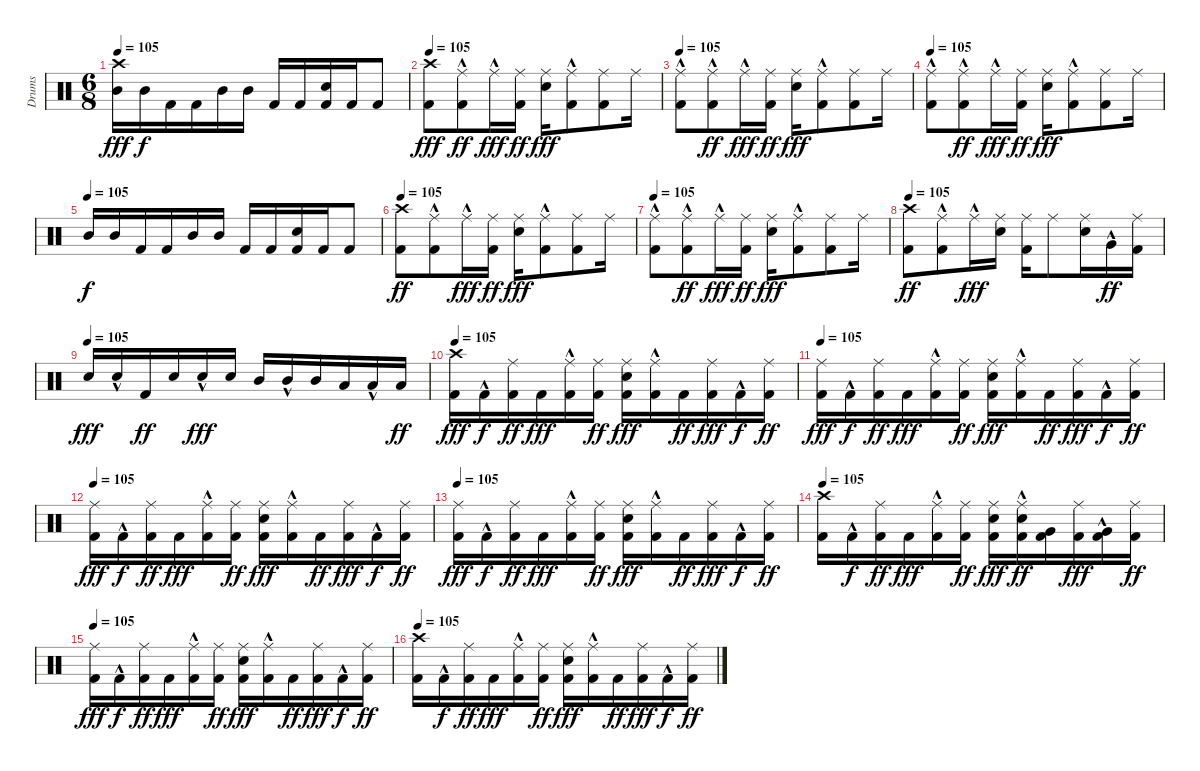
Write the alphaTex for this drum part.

\track ("Drums" "Drums") {instrument percussion}
\staff {score}
\articulation defaults
\ts (6 8)
\tempo 105
\clef neutral
\ks c
("Mid Tom (hit)" "Crash high (hit)").16{dy fff} "Mid Tom (hit)".16{dy f} "Kick (hit) 2".16 "Kick (hit) 2".16 "Mid Tom (hit)".16 "Mid Tom (hit)".16 "Kick (hit) 2".16 "Kick (hit) 2".16 ("Electric Snare (hit)" "Kick (hit) 2").16 "Kick (hit) 2".16 "Kick (hit) 2".8 |
\tempo 105
("Kick (hit) 2" "Crash high (hit)").8{dy fff} ("Ride (middle)" "Kick (hit) 2"{hac}).8{dy ff} "Ride (middle)"{hac}.16{dy fff} ("Ride (middle)" "Kick (hit) 2").16{dy ff} ("Ride (middle)" "Electric Snare (hit)").16{dy fff} ("Ride (middle)" "Kick (hit) 2"{hac}).8 ("Ride (middle)" "Kick (hit) 2").8 "Ride (middle)".16 |
\tempo 105
("Ride (middle)" "Kick (hit) 2"{hac}).8 ("Ride (middle)" "Kick (hit) 2"{hac}).8{dy ff} "Ride (middle)"{hac}.16{dy fff} ("Ride (middle)" "Kick (hit) 2").16{dy ff} ("Ride (middle)" "Electric Snare (hit)").16{dy fff} ("Ride (middle)" "Kick (hit) 2"{hac}).8 ("Ride (middle)" "Kick (hit) 2").8 "Ride (middle)".16 |
\tempo 105
("Ride (middle)" "Kick (hit) 2"{hac}).8 ("Ride (middle)" "Kick (hit) 2"{hac}).8{dy ff} "Ride (middle)"{hac}.16{dy fff} ("Ride (middle)" "Kick (hit) 2").16{dy ff} ("Ride (middle)" "Electric Snare (hit)").16{dy fff} ("Ride (middle)" "Kick (hit) 2"{hac}).8 ("Ride (middle)" "Kick (hit) 2").8 "Ride (middle)".16 |
\tempo (105)
"Mid Tom (hit)".16{dy f} "Mid Tom (hit)".16 "Kick (hit) 2".16 "Kick (hit) 2".16 "Mid Tom (hit)".16 "Mid Tom (hit)".16 "Kick (hit) 2".16 "Kick (hit) 2".16 ("Electric Snare (hit)" "Kick (hit) 2").16 "Kick (hit) 2".16 "Kick (hit) 2".8 |
\tempo 105
("Kick (hit) 2" "Crash high (hit)").8{dy ff} ("Ride (middle)" "Kick (hit) 2"{hac}).8 "Ride (middle)"{hac}.16{dy fff} ("Ride (middle)" "Kick (hit) 2").16{dy ff} ("Ride (middle)" "Electric Snare (hit)").16{dy fff} ("Ride (middle)" "Kick (hit) 2"{hac}).8 ("Ride (middle)" "Kick (hit) 2").8 "Ride (middle)".16 |
\tempo 105
("Ride (middle)" "Kick (hit) 2"{hac}).8 ("Ride (middle)" "Kick (hit) 2"{hac}).8{dy ff} "Ride (middle)"{hac}.16{dy fff} ("Ride (middle)" "Kick (hit) 2").16{dy ff} ("Ride (middle)" "Electric Snare (hit)").16{dy fff} ("Ride (middle)" "Kick (hit) 2"{hac}).8 ("Ride (middle)" "Kick (hit) 2").8 "Ride (middle)".16 |
\tempo 105
("Kick (hit) 2" "Crash high (hit)").8{dy ff} ("Ride (middle)" "Kick (hit) 2"{hac}).8 "Ride (middle)"{hac}.16{dy fff} ("Ride (middle)" "Electric Snare (hit)").16 ("Ride (middle)" "Kick (hit) 2").16 "Ride (middle)".8 ("Ride (middle)" "Electric Snare (hit)").16 "Very Low Tom (hit)"{hac}.16{dy ff} ("Ride (middle)" "Kick (hit) 2").16 |
\tempo (105)
"Electric Snare (hit)".16{dy fff} "Electric Snare (hit)"{hac}.16 "Kick (hit) 2".16{dy ff} "Snare (hit) 2".16 "Snare (hit) 2"{hac}.16{dy fff} "Snare (hit) 2".16 "Mid Tom (hit)".16 "Mid Tom (hit)"{hac}.16 "Mid Tom (hit)".16 "Low Tom (hit)".16 "Low Tom (hit)"{hac}.16 "Low Tom (hit)".16{dy ff} |
\tempo 105
("Kick (hit) 2" "Crash high (hit)").16{dy fff} "Kick (hit) 2"{hac}.16{dy f} ("Ride (middle)" "Kick (hit) 2").16{dy ff} "Kick (hit) 2".16{dy fff} ("Ride (middle)"{hac} "Kick (hit) 2"{hac}).16 ("Ride (middle)" "Kick (hit) 2").16{dy ff} ("Ride (middle)" "Electric Snare (hit)" "Kick (hit) 2").16{dy fff} ("Ride (middle)" "Kick (hit) 2"{hac}).16 "Kick (hit) 2".16{dy ff} ("Ride (middle)" "Kick (hit) 2").16{dy fff} "Kick (hit) 2"{hac}.16{dy f} ("Ride (middle)" "Kick (hit) 2").16{dy ff} |
\tempo 105
("Ride (middle)" "Kick (hit) 2").16{dy fff} "Kick (hit) 2"{hac}.16{dy f} ("Ride (middle)" "Kick (hit) 2").16{dy ff} "Kick (hit) 2".16{dy fff} ("Ride (middle)"{hac} "Kick (hit) 2"{hac}).16 ("Ride (middle)" "Kick (hit) 2").16{dy ff} ("Ride (middle)" "Electric Snare (hit)" "Kick (hit) 2").16{dy fff} ("Ride (middle)" "Kick (hit) 2"{hac}).16 "Kick (hit) 2".16{dy ff} ("Ride (middle)" "Kick (hit) 2").16{dy fff} "Kick (hit) 2"{hac}.16{dy f} ("Ride (middle)" "Kick (hit) 2").16{dy ff} |
\tempo 105
("Ride (middle)" "Kick (hit) 2").16{dy fff} "Kick (hit) 2"{hac}.16{dy f} ("Ride (middle)" "Kick (hit) 2").16{dy ff} "Kick (hit) 2".16{dy fff} ("Ride (middle)"{hac} "Kick (hit) 2"{hac}).16 ("Ride (middle)" "Kick (hit) 2").16{dy ff} ("Ride (middle)" "Kick (hit) 2" "Electric Snare (hit)").16{dy fff} ("Ride (middle)" "Kick (hit) 2"{hac}).16 "Kick (hit) 2".16{dy ff} ("Ride (middle)" "Kick (hit) 2").16{dy fff} "Kick (hit) 2"{hac}.16{dy f} ("Ride (middle)" "Kick (hit) 2").16{dy ff} |
\tempo 105
("Ride (middle)" "Kick (hit) 2").16{dy fff} "Kick (hit) 2"{hac}.16{dy f} ("Ride (middle)" "Kick (hit) 2").16{dy ff} "Kick (hit) 2".16{dy fff} ("Ride (middle)"{hac} "Kick (hit) 2"{hac}).16 ("Ride (middle)" "Kick (hit) 2").16{dy ff} ("Ride (middle)" "Electric Snare (hit)" "Kick (hit) 2").16{dy fff} ("Ride (middle)" "Kick (hit) 2"{hac}).16 "Kick (hit) 2".16{dy ff} ("Ride (middle)" "Kick (hit) 2").16{dy fff} "Kick (hit) 2"{hac}.16{dy f} ("Ride (middle)" "Kick (hit) 2").16{dy ff} |
\tempo 105
("Kick (hit) 2" "Crash high (hit)").16 "Kick (hit) 2"{hac}.16{dy f} ("Ride (middle)" "Kick (hit) 2").16{dy ff} "Kick (hit) 2".16{dy fff} ("Ride (middle)"{hac} "Kick (hit) 2"{hac}).16 ("Ride (middle)" "Kick (hit) 2").16{dy ff} ("Ride (middle)" "Electric Snare (hit)" "Kick (hit) 2").16{dy fff} ("Ride (middle)" "Electric Snare (hit)"{hac} "Kick (hit) 2"{hac}).16{dy ff} ("Very Low Tom (hit)" "Kick (hit) 2").16 ("Ride (middle)" "Kick (hit) 2").16{dy fff} ("Very Low Tom (hit)"{hac} "Kick (hit) 2"{hac}).16 ("Ride (middle)" "Kick (hit) 2").16{dy ff} |
\tempo 105
("Ride (middle)" "Kick (hit) 2").16{dy fff} "Kick (hit) 2"{hac}.16{dy f} ("Ride (middle)" "Kick (hit) 2").16{dy ff} "Kick (hit) 2".16{dy fff} ("Ride (middle)"{hac} "Kick (hit) 2"{hac}).16 ("Ride (middle)" "Kick (hit) 2").16{dy ff} ("Ride (middle)" "Electric Snare (hit)" "Kick (hit) 2").16{dy fff} ("Ride (middle)" "Kick (hit) 2"{hac}).16 "Kick (hit) 2".16{dy ff} ("Ride (middle)" "Kick (hit) 2").16{dy fff} "Kick (hit) 2"{hac}.16{dy f} ("Ride (middle)" "Kick (hit) 2").16{dy ff} |
\tempo 105
("Kick (hit) 2" "Crash high (hit)").16 "Kick (hit) 2"{hac}.16{dy f} ("Ride (middle)" "Kick (hit) 2").16{dy ff} "Kick (hit) 2".16{dy fff} ("Ride (middle)"{hac} "Kick (hit) 2"{hac}).16 ("Ride (middle)" "Kick (hit) 2").16{dy ff} ("Ride (middle)" "Electric Snare (hit)" "Kick (hit) 2").16{dy fff} ("Ride (middle)" "Kick (hit) 2"{hac}).16 "Kick (hit) 2".16{dy ff} ("Ride (middle)" "Kick (hit) 2").16{dy fff} "Kick (hit) 2"{hac}.16{dy f} ("Ride (middle)" "Kick (hit) 2").16{dy ff}
